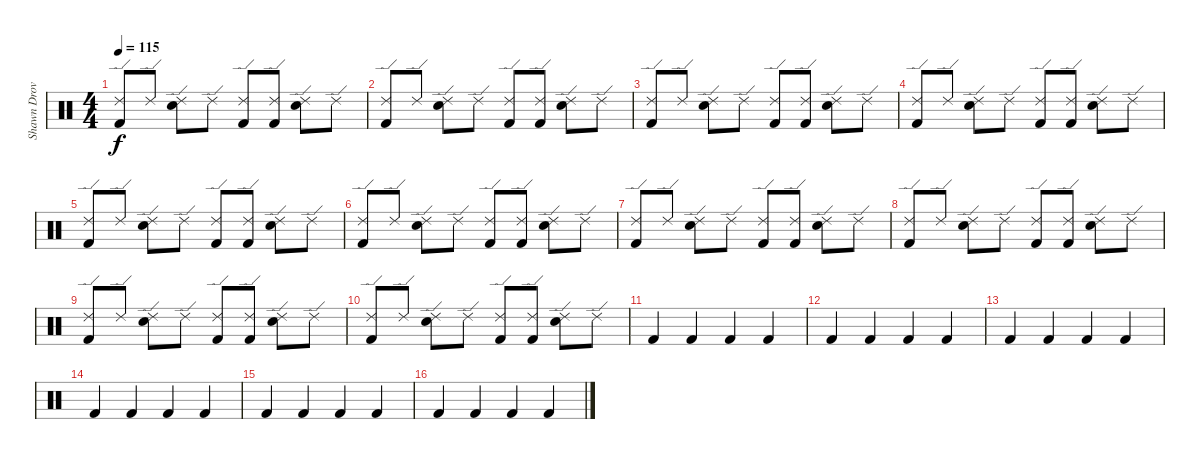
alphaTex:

\track ("Shawn Drover" "Shawn Drov") {instrument percussion}
\staff {score}
\articulation defaults
\ts (4 4)
\tempo 115
\clef neutral
\ks c
("Ride (edge) 2" "Kick (hit) 2").8{dy f} "Ride (edge) 2".8 ("Ride (edge) 2" "Snare (hit) 2").8 "Ride (edge) 2".8 ("Ride (edge) 2" "Kick (hit) 2").8 ("Ride (edge) 2" "Kick (hit) 2").8 ("Ride (edge) 2" "Snare (hit) 2").8 "Ride (edge) 2".8 |
("Ride (edge) 2" "Kick (hit) 2").8 "Ride (edge) 2".8 ("Ride (edge) 2" "Snare (hit) 2").8 "Ride (edge) 2".8 ("Ride (edge) 2" "Kick (hit) 2").8 ("Ride (edge) 2" "Kick (hit) 2").8 ("Ride (edge) 2" "Snare (hit) 2").8 "Ride (edge) 2".8 |
("Ride (edge) 2" "Kick (hit) 2").8 "Ride (edge) 2".8 ("Ride (edge) 2" "Snare (hit) 2").8 "Ride (edge) 2".8 ("Ride (edge) 2" "Kick (hit) 2").8 ("Ride (edge) 2" "Kick (hit) 2").8 ("Ride (edge) 2" "Snare (hit) 2").8 "Ride (edge) 2".8 |
("Ride (edge) 2" "Kick (hit) 2").8 "Ride (edge) 2".8 ("Ride (edge) 2" "Snare (hit) 2").8 "Ride (edge) 2".8 ("Ride (edge) 2" "Kick (hit) 2").8 ("Ride (edge) 2" "Kick (hit) 2").8 ("Ride (edge) 2" "Snare (hit) 2").8 "Ride (edge) 2".8 |
("Ride (edge) 2" "Kick (hit) 2").8 "Ride (edge) 2".8 ("Ride (edge) 2" "Snare (hit) 2").8 "Ride (edge) 2".8 ("Ride (edge) 2" "Kick (hit) 2").8 ("Ride (edge) 2" "Kick (hit) 2").8 ("Ride (edge) 2" "Snare (hit) 2").8 "Ride (edge) 2".8 |
("Ride (edge) 2" "Kick (hit) 2").8 "Ride (edge) 2".8 ("Ride (edge) 2" "Snare (hit) 2").8 "Ride (edge) 2".8 ("Ride (edge) 2" "Kick (hit) 2").8 ("Ride (edge) 2" "Kick (hit) 2").8 ("Ride (edge) 2" "Snare (hit) 2").8 "Ride (edge) 2".8 |
("Ride (edge) 2" "Kick (hit) 2").8 "Ride (edge) 2".8 ("Ride (edge) 2" "Snare (hit) 2").8 "Ride (edge) 2".8 ("Ride (edge) 2" "Kick (hit) 2").8 ("Ride (edge) 2" "Kick (hit) 2").8 ("Ride (edge) 2" "Snare (hit) 2").8 "Ride (edge) 2".8 |
("Ride (edge) 2" "Kick (hit) 2").8 "Ride (edge) 2".8 ("Ride (edge) 2" "Snare (hit) 2").8 "Ride (edge) 2".8 ("Ride (edge) 2" "Kick (hit) 2").8 ("Ride (edge) 2" "Kick (hit) 2").8 ("Ride (edge) 2" "Snare (hit) 2").8 "Ride (edge) 2".8 |
("Ride (edge) 2" "Kick (hit) 2").8 "Ride (edge) 2".8 ("Ride (edge) 2" "Snare (hit) 2").8 "Ride (edge) 2".8 ("Ride (edge) 2" "Kick (hit) 2").8 ("Ride (edge) 2" "Kick (hit) 2").8 ("Ride (edge) 2" "Snare (hit) 2").8 "Ride (edge) 2".8 |
("Ride (edge) 2" "Kick (hit) 2").8 "Ride (edge) 2".8 ("Ride (edge) 2" "Snare (hit) 2").8 "Ride (edge) 2".8 ("Ride (edge) 2" "Kick (hit) 2").8 ("Ride (edge) 2" "Kick (hit) 2").8 ("Ride (edge) 2" "Snare (hit) 2").8 "Ride (edge) 2".8 |
"Kick (hit) 2".4{volume 16} "Kick (hit) 2".4 "Kick (hit) 2".4 "Kick (hit) 2".4 |
"Kick (hit) 2".4 "Kick (hit) 2".4 "Kick (hit) 2".4 "Kick (hit) 2".4 |
"Kick (hit) 2".4 "Kick (hit) 2".4 "Kick (hit) 2".4 "Kick (hit) 2".4 |
"Kick (hit) 2".4 "Kick (hit) 2".4 "Kick (hit) 2".4 "Kick (hit) 2".4 |
"Kick (hit) 2".4 "Kick (hit) 2".4 "Kick (hit) 2".4 "Kick (hit) 2".4 |
"Kick (hit) 2".4 "Kick (hit) 2".4 "Kick (hit) 2".4 "Kick (hit) 2".4
